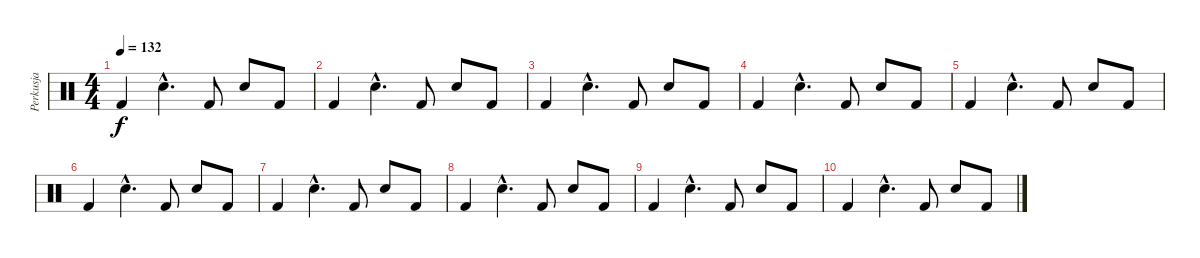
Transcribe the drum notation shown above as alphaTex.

\track ("Perkusja" "Perkusja") {instrument percussion}
\staff {score}
\articulation defaults
\ts (4 4)
\tempo 132
\clef neutral
\ks c "Kick (hit) 2".4{dy f} "Snare (hit) 2"{hac}.4{d} "Kick (hit) 2".8 "Snare (hit) 2".8 "Kick (hit) 2".8
|
"Kick (hit) 2".4 "Snare (hit) 2"{hac}.4{d} "Kick (hit) 2".8 "Snare (hit) 2".8 "Kick (hit) 2".8 |
"Kick (hit) 2".4 "Snare (hit) 2"{hac}.4{d} "Kick (hit) 2".8 "Snare (hit) 2".8 "Kick (hit) 2".8 |
"Kick (hit) 2".4 "Snare (hit) 2"{hac}.4{d} "Kick (hit) 2".8 "Snare (hit) 2".8 "Kick (hit) 2".8 |
"Kick (hit) 2".4 "Snare (hit) 2"{hac}.4{d} "Kick (hit) 2".8 "Snare (hit) 2".8 "Kick (hit) 2".8 |
"Kick (hit) 2".4 "Snare (hit) 2"{hac}.4{d} "Kick (hit) 2".8 "Snare (hit) 2".8 "Kick (hit) 2".8 |
"Kick (hit) 2".4 "Snare (hit) 2"{hac}.4{d} "Kick (hit) 2".8 "Snare (hit) 2".8 "Kick (hit) 2".8 |
"Kick (hit) 2".4 "Snare (hit) 2"{hac}.4{d} "Kick (hit) 2".8 "Snare (hit) 2".8 "Kick (hit) 2".8 |
"Kick (hit) 2".4 "Snare (hit) 2"{hac}.4{d} "Kick (hit) 2".8 "Snare (hit) 2".8 "Kick (hit) 2".8 |
"Kick (hit) 2".4 "Snare (hit) 2"{hac}.4{d} "Kick (hit) 2".8 "Snare (hit) 2".8 "Kick (hit) 2".8
